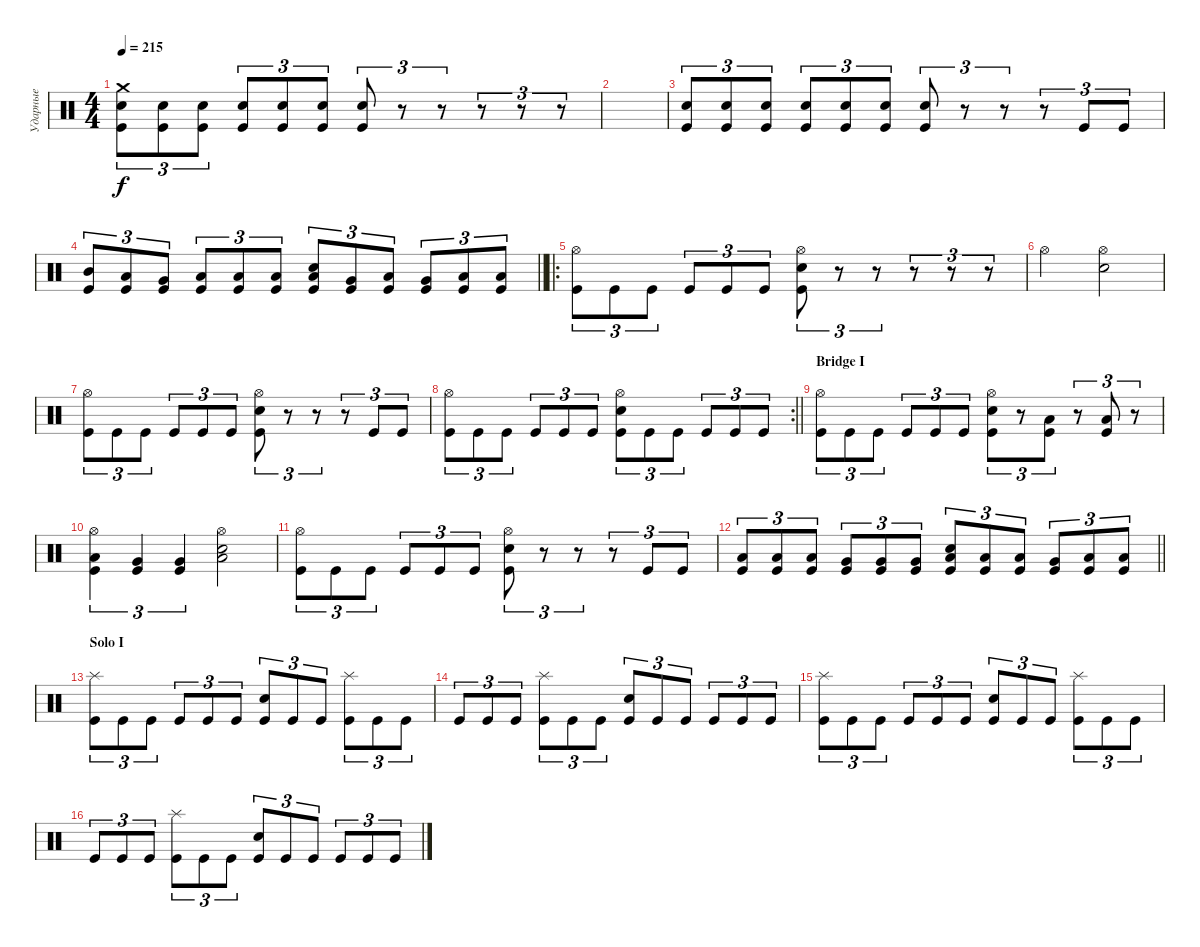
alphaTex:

\track ("Ударные" "Ударные") {instrument percussion}
\staff {score}
\articulation defaults
\ts (4 4)
\tempo 215
\clef neutral
\ks c
("Crash medium (hit)" "Electric Snare (hit)" "Kick (hit)").8{tu (3 2) dy f} ("Electric Snare (hit)" "Kick (hit)").8{tu (3 2)} ("Electric Snare (hit)" "Kick (hit)").8{tu (3 2)} ("Electric Snare (hit)" "Kick (hit)").8{tu (3 2)} ("Electric Snare (hit)" "Kick (hit)").8{tu (3 2)} ("Electric Snare (hit)" "Kick (hit)").8{tu (3 2)} ("Electric Snare (hit)" "Kick (hit)").8{tu (3 2)} r.8{tu (3 2)} r.8{tu (3 2)} r.8{tu (3 2)} r.8{tu (3 2)} r.8{tu (3 2)} |
|
("Electric Snare (hit)" "Kick (hit)").8{tu (3 2)} ("Electric Snare (hit)" "Kick (hit)").8{tu (3 2)} ("Electric Snare (hit)" "Kick (hit)").8{tu (3 2)} ("Electric Snare (hit)" "Kick (hit)").8{tu (3 2)} ("Electric Snare (hit)" "Kick (hit)").8{tu (3 2)} ("Electric Snare (hit)" "Kick (hit)").8{tu (3 2)} ("Electric Snare (hit)" "Kick (hit)").8{tu (3 2)} r.8{tu (3 2)} r.8{tu (3 2)} r.8{tu (3 2)} "Kick (hit)".8{tu (3 2)} "Kick (hit)".8{tu (3 2)} |
\barLineRight lightlight
("Mid Tom (hit)" "Kick (hit)").8{tu (3 2)} ("Low Tom (hit)" "Kick (hit)").8{tu (3 2)} ("Very Low Tom (hit)" "Kick (hit)").8{tu (3 2)} ("Low Floor Tom (hit)" "Kick (hit)").8{tu (3 2)} ("Low Floor Tom (hit)" "Kick (hit)").8{tu (3 2)} ("Low Floor Tom (hit)" "Kick (hit)").8{tu (3 2)} ("Low Tom (hit)" "Electric Snare (hit)" "Kick (hit)").8{tu (3 2)} ("Very Low Tom (hit)" "Kick (hit)").8{tu (3 2)} ("Low Floor Tom (hit)" "Kick (hit)").8{tu (3 2)} ("Very Low Tom (hit)" "Kick (hit)").8{tu (3 2)} ("Low Floor Tom (hit)" "Kick (hit)").8{tu (3 2)} ("Low Floor Tom (hit)" "Kick (hit)").8{tu (3 2)} |
\ro
("Hi-Hat (open)" "Kick (hit)").8{tu (3 2)} "Kick (hit)".8{tu (3 2)} "Kick (hit)".8{tu (3 2)} "Kick (hit)".8{tu (3 2)} "Kick (hit)".8{tu (3 2)} "Kick (hit)".8{tu (3 2)} ("Hi-Hat (open)" "Electric Snare (hit)" "Kick (hit)").8{tu (3 2)} r.8{tu (3 2)} r.8{tu (3 2)} r.8{tu (3 2)} r.8{tu (3 2)} r.8{tu (3 2)} |
"Hi-Hat (open)".2 ("Hi-Hat (open)" "Electric Snare (hit)").2 |
("Hi-Hat (open)" "Kick (hit)").8{tu (3 2)} "Kick (hit)".8{tu (3 2)} "Kick (hit)".8{tu (3 2)} "Kick (hit)".8{tu (3 2)} "Kick (hit)".8{tu (3 2)} "Kick (hit)".8{tu (3 2)} ("Hi-Hat (open)" "Electric Snare (hit)" "Kick (hit)").8{tu (3 2)} r.8{tu (3 2)} r.8{tu (3 2)} r.8{tu (3 2)} "Kick (hit)".8{tu (3 2)} "Kick (hit)".8{tu (3 2)} |
\rc 2
\barLineRight lightlight
("Hi-Hat (open)" "Kick (hit)").8{tu (3 2)} "Kick (hit)".8{tu (3 2)} "Kick (hit)".8{tu (3 2)} "Kick (hit)".8{tu (3 2)} "Kick (hit)".8{tu (3 2)} "Kick (hit)".8{tu (3 2)} ("Hi-Hat (open)" "Electric Snare (hit)" "Kick (hit)").8{tu (3 2)} "Kick (hit)".8{tu (3 2)} "Kick (hit)".8{tu (3 2)} "Kick (hit)".8{tu (3 2)} "Kick (hit)".8{tu (3 2)} "Kick (hit)".8{tu (3 2)} |
\section ("" "Bridge I")
("Hi-Hat (open)" "Kick (hit)").8{tu (3 2)} "Kick (hit)".8{tu (3 2)} "Kick (hit)".8{tu (3 2)} "Kick (hit)".8{tu (3 2)} "Kick (hit)".8{tu (3 2)} "Kick (hit)".8{tu (3 2)} ("Hi-Hat (open)" "Electric Snare (hit)" "Kick (hit)").8{tu (3 2)} r.8{tu (3 2)} ("Low Tom (hit)" "Kick (hit)").8{tu (3 2)} r.8{tu (3 2)} ("Low Tom (hit)" "Kick (hit)").8{tu (3 2)} r.8{tu (3 2)} |
("Hi-Hat (open)" "Low Tom (hit)" "Kick (hit)").4{tu (3 2)} ("Very Low Tom (hit)" "Kick (hit)").4{tu (3 2)} ("Very Low Tom (hit)" "Kick (hit)").4{tu (3 2)} ("Hi-Hat (open)" "Low Floor Tom (hit)" "Electric Snare (hit)").2 |
("Hi-Hat (open)" "Kick (hit)").8{tu (3 2)} "Kick (hit)".8{tu (3 2)} "Kick (hit)".8{tu (3 2)} "Kick (hit)".8{tu (3 2)} "Kick (hit)".8{tu (3 2)} "Kick (hit)".8{tu (3 2)} ("Hi-Hat (open)" "Electric Snare (hit)" "Kick (hit)").8{tu (3 2)} r.8{tu (3 2)} r.8{tu (3 2)} r.8{tu (3 2)} "Kick (hit)".8{tu (3 2)} "Kick (hit)".8{tu (3 2)} |
\barLineRight lightlight
("Low Tom (hit)" "Kick (hit)").8{tu (3 2)} ("Low Tom (hit)" "Kick (hit)").8{tu (3 2)} ("Low Tom (hit)" "Kick (hit)").8{tu (3 2)} ("Very Low Tom (hit)" "Kick (hit)").8{tu (3 2)} ("Very Low Tom (hit)" "Kick (hit)").8{tu (3 2)} ("Very Low Tom (hit)" "Kick (hit)").8{tu (3 2)} ("Low Tom (hit)" "Electric Snare (hit)" "Kick (hit)").8{tu (3 2)} ("Low Tom (hit)" "Kick (hit)").8{tu (3 2)} ("Low Tom (hit)" "Kick (hit)").8{tu (3 2)} ("Very Low Tom (hit)" "Kick (hit)").8{tu (3 2)} ("Low Floor Tom (hit)" "Kick (hit)").8{tu (3 2)} ("Low Floor Tom (hit)" "Kick (hit)").8{tu (3 2)} |
\section ("" "Solo I")
("Splash (hit)" "Kick (hit)").8{tu (3 2)} "Kick (hit)".8{tu (3 2)} "Kick (hit)".8{tu (3 2)} "Kick (hit)".8{tu (3 2)} "Kick (hit)".8{tu (3 2)} "Kick (hit)".8{tu (3 2)} ("Electric Snare (hit)" "Kick (hit)").8{tu (3 2)} "Kick (hit)".8{tu (3 2)} "Kick (hit)".8{tu (3 2)} ("Splash (hit)" "Kick (hit)").8{tu (3 2)} "Kick (hit)".8{tu (3 2)} "Kick (hit)".8{tu (3 2)} |
"Kick (hit)".8{tu (3 2)} "Kick (hit)".8{tu (3 2)} "Kick (hit)".8{tu (3 2)} ("Splash (hit)" "Kick (hit)").8{tu (3 2)} "Kick (hit)".8{tu (3 2)} "Kick (hit)".8{tu (3 2)} ("Electric Snare (hit)" "Kick (hit)").8{tu (3 2)} "Kick (hit)".8{tu (3 2)} "Kick (hit)".8{tu (3 2)} "Kick (hit)".8{tu (3 2)} "Kick (hit)".8{tu (3 2)} "Kick (hit)".8{tu (3 2)} |
("Splash (hit)" "Kick (hit)").8{tu (3 2)} "Kick (hit)".8{tu (3 2)} "Kick (hit)".8{tu (3 2)} "Kick (hit)".8{tu (3 2)} "Kick (hit)".8{tu (3 2)} "Kick (hit)".8{tu (3 2)} ("Electric Snare (hit)" "Kick (hit)").8{tu (3 2)} "Kick (hit)".8{tu (3 2)} "Kick (hit)".8{tu (3 2)} ("Splash (hit)" "Kick (hit)").8{tu (3 2)} "Kick (hit)".8{tu (3 2)} "Kick (hit)".8{tu (3 2)} |
"Kick (hit)".8{tu (3 2)} "Kick (hit)".8{tu (3 2)} "Kick (hit)".8{tu (3 2)} ("Splash (hit)" "Kick (hit)").8{tu (3 2)} "Kick (hit)".8{tu (3 2)} "Kick (hit)".8{tu (3 2)} ("Electric Snare (hit)" "Kick (hit)").8{tu (3 2)} "Kick (hit)".8{tu (3 2)} "Kick (hit)".8{tu (3 2)} "Kick (hit)".8{tu (3 2)} "Kick (hit)".8{tu (3 2)} "Kick (hit)".8{tu (3 2)}
